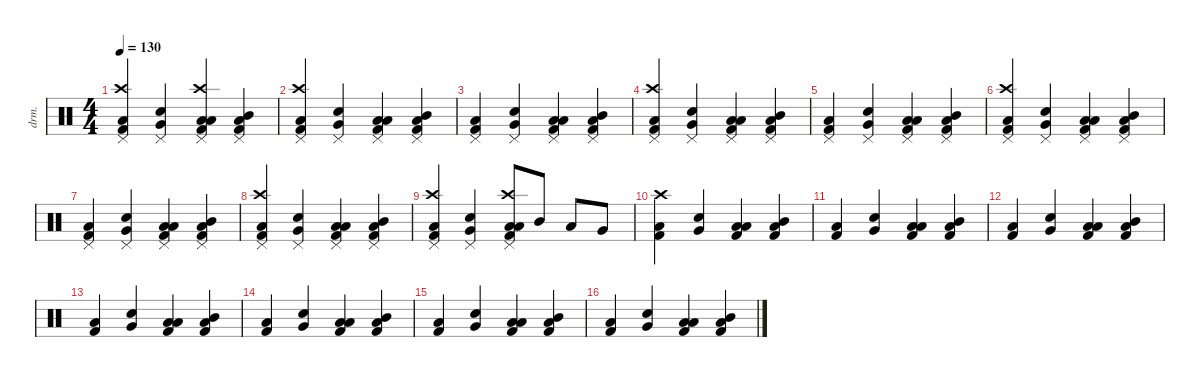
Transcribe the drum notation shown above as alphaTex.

\defaultSystemsLayout 4
\hideDynamics
\bracketExtendMode nobrackets
\otherSystemsTrackNameOrientation horizontal
\track ("Percussion" "drm.") {instrument percussion}
\staff {score}
\articulation defaults
\ts (4 4)
\tempo 130
\clef neutral
\ks c
("Pedal Hi-Hat (hit)" "Crash high (hit)" "Kick (hit) 2" "Low Floor Tom (hit)").4{dy f} ("Pedal Hi-Hat (hit)" "Very Low Tom (hit)" "Snare (hit) 2").4 ("Pedal Hi-Hat (hit)" "Crash high (hit)" "Low Floor Tom (hit)" "Kick (hit) 2" "Low Tom (hit)").4 ("Pedal Hi-Hat (hit)" "Low Tom (hit)" "Kick (hit) 2" "Mid Tom (hit)").4 |
("Pedal Hi-Hat (hit)" "Crash high (hit)" "Kick (hit) 2" "Low Floor Tom (hit)").4 ("Pedal Hi-Hat (hit)" "Very Low Tom (hit)" "Snare (hit) 2").4 ("Pedal Hi-Hat (hit)" "Low Floor Tom (hit)" "Kick (hit) 2" "Low Tom (hit)").4 ("Pedal Hi-Hat (hit)" "Low Tom (hit)" "Kick (hit) 2" "Mid Tom (hit)").4 |
("Pedal Hi-Hat (hit)" "Kick (hit) 2" "Low Floor Tom (hit)").4 ("Pedal Hi-Hat (hit)" "Very Low Tom (hit)" "Snare (hit) 2").4 ("Pedal Hi-Hat (hit)" "Low Floor Tom (hit)" "Kick (hit) 2" "Low Tom (hit)").4 ("Pedal Hi-Hat (hit)" "Low Tom (hit)" "Kick (hit) 2" "Mid Tom (hit)").4 |
("Pedal Hi-Hat (hit)" "Crash high (hit)" "Kick (hit) 2" "Low Floor Tom (hit)").4 ("Pedal Hi-Hat (hit)" "Very Low Tom (hit)" "Snare (hit) 2").4 ("Pedal Hi-Hat (hit)" "Low Floor Tom (hit)" "Kick (hit) 2" "Low Tom (hit)").4 ("Pedal Hi-Hat (hit)" "Low Tom (hit)" "Kick (hit) 2" "Mid Tom (hit)").4 |
("Pedal Hi-Hat (hit)" "Kick (hit) 2" "Low Floor Tom (hit)").4 ("Pedal Hi-Hat (hit)" "Very Low Tom (hit)" "Snare (hit) 2").4 ("Pedal Hi-Hat (hit)" "Low Floor Tom (hit)" "Kick (hit) 2" "Low Tom (hit)").4 ("Pedal Hi-Hat (hit)" "Low Tom (hit)" "Kick (hit) 2" "Mid Tom (hit)").4 |
("Pedal Hi-Hat (hit)" "Crash high (hit)" "Kick (hit) 2" "Low Floor Tom (hit)").4 ("Pedal Hi-Hat (hit)" "Very Low Tom (hit)" "Snare (hit) 2").4 ("Pedal Hi-Hat (hit)" "Low Floor Tom (hit)" "Kick (hit) 2" "Low Tom (hit)").4 ("Pedal Hi-Hat (hit)" "Low Tom (hit)" "Kick (hit) 2" "Mid Tom (hit)").4 |
("Pedal Hi-Hat (hit)" "Kick (hit) 2" "Low Floor Tom (hit)").4 ("Pedal Hi-Hat (hit)" "Very Low Tom (hit)" "Snare (hit) 2").4 ("Pedal Hi-Hat (hit)" "Low Floor Tom (hit)" "Kick (hit) 2" "Low Tom (hit)").4 ("Pedal Hi-Hat (hit)" "Low Tom (hit)" "Kick (hit) 2" "Mid Tom (hit)").4 |
("Pedal Hi-Hat (hit)" "Crash high (hit)" "Kick (hit) 2" "Low Floor Tom (hit)").4 ("Pedal Hi-Hat (hit)" "Very Low Tom (hit)" "Snare (hit) 2").4 ("Pedal Hi-Hat (hit)" "Low Floor Tom (hit)" "Kick (hit) 2" "Low Tom (hit)").4 ("Pedal Hi-Hat (hit)" "Low Tom (hit)" "Kick (hit) 2" "Mid Tom (hit)").4 |
("Pedal Hi-Hat (hit)" "Crash high (hit)" "Kick (hit) 2" "Low Floor Tom (hit)").4 ("Pedal Hi-Hat (hit)" "Very Low Tom (hit)" "Snare (hit) 2").4 ("Pedal Hi-Hat (hit)" "Crash high (hit)" "Low Floor Tom (hit)" "Kick (hit) 2" "Low Tom (hit)").8 "Mid Tom (hit)".8 "Low Tom (hit)".8 "Very Low Tom (hit)".8 |
("Kick (hit) 2" "Crash high (hit)" "Low Floor Tom (hit)").4 ("Very Low Tom (hit)" "Snare (hit) 2").4 ("Low Floor Tom (hit)" "Kick (hit) 2" "Low Tom (hit)").4 ("Low Tom (hit)" "Kick (hit) 2" "Mid Tom (hit)").4 |
("Kick (hit) 2" "Low Floor Tom (hit)").4 ("Very Low Tom (hit)" "Snare (hit) 2").4 ("Low Floor Tom (hit)" "Kick (hit) 2" "Low Tom (hit)").4 ("Low Tom (hit)" "Kick (hit) 2" "Mid Tom (hit)").4 |
("Kick (hit) 2" "Low Floor Tom (hit)").4 ("Very Low Tom (hit)" "Snare (hit) 2").4 ("Low Floor Tom (hit)" "Kick (hit) 2" "Low Tom (hit)").4 ("Low Tom (hit)" "Kick (hit) 2" "Mid Tom (hit)").4 |
("Kick (hit) 2" "Low Floor Tom (hit)").4 ("Very Low Tom (hit)" "Snare (hit) 2").4 ("Low Floor Tom (hit)" "Kick (hit) 2" "Low Tom (hit)").4 ("Low Tom (hit)" "Kick (hit) 2" "Mid Tom (hit)").4 |
("Kick (hit) 2" "Low Floor Tom (hit)").4 ("Very Low Tom (hit)" "Snare (hit) 2").4 ("Low Floor Tom (hit)" "Kick (hit) 2" "Low Tom (hit)").4 ("Low Tom (hit)" "Kick (hit) 2" "Mid Tom (hit)").4 |
("Kick (hit) 2" "Low Floor Tom (hit)").4 ("Very Low Tom (hit)" "Snare (hit) 2").4 ("Low Floor Tom (hit)" "Kick (hit) 2" "Low Tom (hit)").4 ("Low Tom (hit)" "Kick (hit) 2" "Mid Tom (hit)").4 |
("Kick (hit) 2" "Low Floor Tom (hit)").4 ("Very Low Tom (hit)" "Snare (hit) 2").4 ("Low Floor Tom (hit)" "Kick (hit) 2" "Low Tom (hit)").4 ("Low Tom (hit)" "Kick (hit) 2" "Mid Tom (hit)").4
